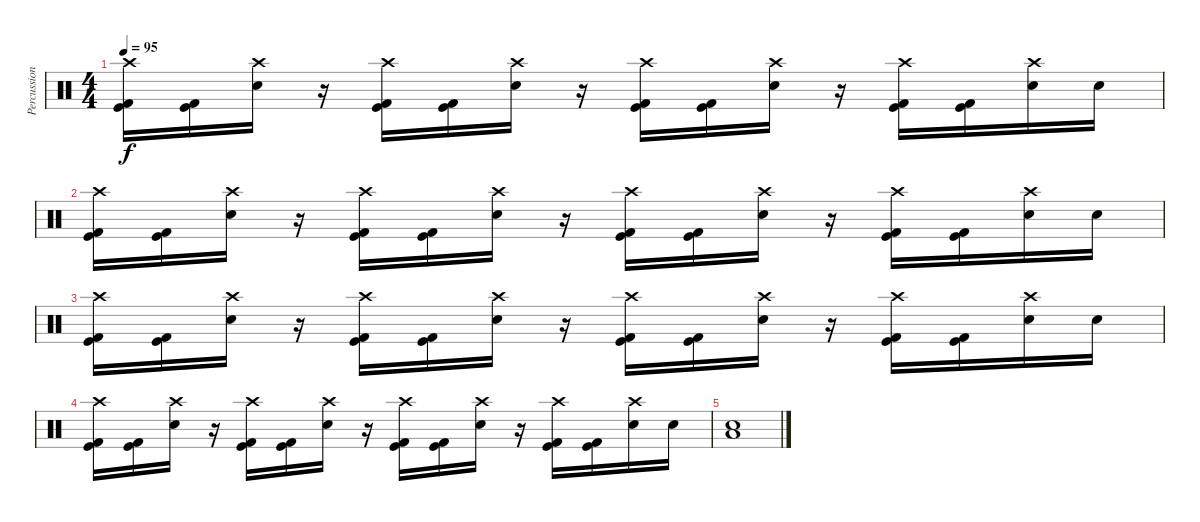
\track ("Percussion" "Percussion") {instrument percussion}
\staff {score}
\articulation defaults
\ts (4 4)
\tempo 95
\clef neutral
\ks c
("Crash high (hit)" "Kick (hit)" "Kick (hit) 2").16{dy f} ("Kick (hit)" "Kick (hit) 2").16 ("Crash high (hit)" "Electric Snare (hit)").16 r.16 ("Crash high (hit)" "Kick (hit)" "Kick (hit) 2").16 ("Kick (hit)" "Kick (hit) 2").16 ("Crash high (hit)" "Electric Snare (hit)").16 r.16 ("Crash high (hit)" "Kick (hit)" "Kick (hit) 2").16 ("Kick (hit)" "Kick (hit) 2").16 ("Crash high (hit)" "Electric Snare (hit)").16 r.16 ("Crash high (hit)" "Kick (hit)" "Kick (hit) 2").16 ("Kick (hit)" "Kick (hit) 2").16 ("Crash high (hit)" "Electric Snare (hit)").16 "Snare (hit)".16 |
("Crash high (hit)" "Kick (hit)" "Kick (hit) 2").16 ("Kick (hit)" "Kick (hit) 2").16 ("Crash high (hit)" "Electric Snare (hit)").16 r.16 ("Crash high (hit)" "Kick (hit)" "Kick (hit) 2").16 ("Kick (hit)" "Kick (hit) 2").16 ("Crash high (hit)" "Electric Snare (hit)").16 r.16 ("Crash high (hit)" "Kick (hit)" "Kick (hit) 2").16 ("Kick (hit)" "Kick (hit) 2").16 ("Crash high (hit)" "Electric Snare (hit)").16 r.16 ("Crash high (hit)" "Kick (hit)" "Kick (hit) 2").16 ("Kick (hit)" "Kick (hit) 2").16 ("Crash high (hit)" "Electric Snare (hit)").16 "Snare (hit)".16 |
("Crash high (hit)" "Kick (hit)" "Kick (hit) 2").16 ("Kick (hit)" "Kick (hit) 2").16 ("Crash high (hit)" "Electric Snare (hit)").16 r.16 ("Crash high (hit)" "Kick (hit)" "Kick (hit) 2").16 ("Kick (hit)" "Kick (hit) 2").16 ("Crash high (hit)" "Electric Snare (hit)").16 r.16 ("Crash high (hit)" "Kick (hit)" "Kick (hit) 2").16 ("Kick (hit)" "Kick (hit) 2").16 ("Crash high (hit)" "Electric Snare (hit)").16 r.16 ("Crash high (hit)" "Kick (hit)" "Kick (hit) 2").16 ("Kick (hit)" "Kick (hit) 2").16 ("Crash high (hit)" "Electric Snare (hit)").16 "Snare (hit)".16 |
("Crash high (hit)" "Kick (hit)" "Kick (hit) 2").16 ("Kick (hit)" "Kick (hit) 2").16 ("Crash high (hit)" "Electric Snare (hit)").16 r.16 ("Crash high (hit)" "Kick (hit)" "Kick (hit) 2").16 ("Kick (hit)" "Kick (hit) 2").16 ("Crash high (hit)" "Electric Snare (hit)").16 r.16 ("Crash high (hit)" "Kick (hit)" "Kick (hit) 2").16 ("Kick (hit)" "Kick (hit) 2").16 ("Crash high (hit)" "Electric Snare (hit)").16 r.16 ("Crash high (hit)" "Kick (hit)" "Kick (hit) 2").16 ("Kick (hit)" "Kick (hit) 2").16 ("Crash high (hit)" "Electric Snare (hit)").16 "Snare (hit)".16 |
("Low Tom (hit)" "Electric Snare (hit)").1
